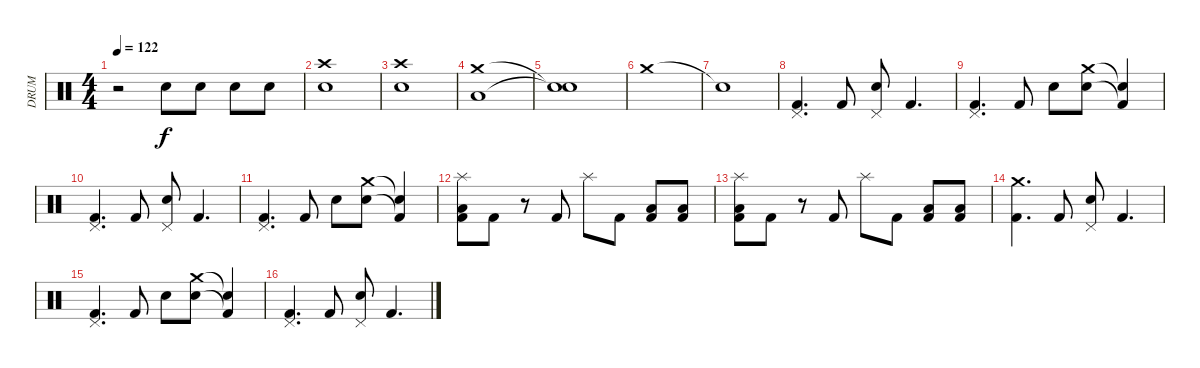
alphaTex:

\track ("DRUM" "DRUM") {instrument percussion}
\staff {score}
\articulation defaults
\ts (4 4)
\tempo 122
\clef neutral
\ks c
r.2{dy f} "Electric Snare (hit)".8 "Electric Snare (hit)".8 "Electric Snare (hit)".8 "Electric Snare (hit)".8 |
("Crash high (hit)" "Snare (hit) 2").1 |
("Crash high (hit)" "Electric Snare (hit)").1 |
("Crash medium (hit)" "Low Floor Tom (hit)").1 |
("Snare (hit)"{t} "Snare (hit)"{t}).1 |
"Crash medium (hit)".1 |
"Snare (hit)"{t}.1 |
("Kick (hit) 2" "Pedal Hi-Hat (hit)").4{d} "Kick (hit) 2".8 ("Snare (hit) 2" "Pedal Hi-Hat (hit)").8 "Kick (hit) 2".4{d} |
("Kick (hit) 2" "Pedal Hi-Hat (hit)").4{d} "Kick (hit) 2".8 "Electric Snare (hit)".8 ("Electric Snare (hit)" "Crash medium (hit)").8 ("Kick (hit) 2"{t} "Snare (hit)"{t}).4 |
("Kick (hit) 2" "Pedal Hi-Hat (hit)").4{d} "Kick (hit) 2".8 ("Snare (hit) 2" "Pedal Hi-Hat (hit)").8 "Kick (hit) 2".4{d} |
("Kick (hit) 2" "Pedal Hi-Hat (hit)").4{d} "Kick (hit) 2".8 "Electric Snare (hit)".8 ("Electric Snare (hit)" "Crash medium (hit)").8 ("Kick (hit) 2"{t} "Snare (hit)"{t}).4 |
("Kick (hit) 2" "Low Floor Tom (hit)" "Splash (hit)").8 "Kick (hit) 2".8 r.8 "Kick (hit) 2".8 "Splash (hit)".8 "Kick (hit) 2".8 ("Kick (hit) 2" "Low Floor Tom (hit)").8 ("Kick (hit) 2" "Low Floor Tom (hit)").8 |
("Kick (hit) 2" "Low Floor Tom (hit)" "Splash (hit)").8 "Kick (hit) 2".8 r.8 "Kick (hit) 2".8 "Splash (hit)".8 "Kick (hit) 2".8 ("Kick (hit) 2" "Low Floor Tom (hit)").8 ("Kick (hit) 2" "Low Floor Tom (hit)").8 |
("Kick (hit) 2" "Crash medium (hit)").4{d} "Kick (hit) 2".8 ("Snare (hit) 2" "Pedal Hi-Hat (hit)").8 "Kick (hit) 2".4{d} |
("Kick (hit) 2" "Pedal Hi-Hat (hit)").4{d} "Kick (hit) 2".8 "Electric Snare (hit)".8 ("Electric Snare (hit)" "Crash medium (hit)").8 ("Kick (hit) 2"{t} "Snare (hit)"{t}).4 |
("Kick (hit) 2" "Pedal Hi-Hat (hit)").4{d} "Kick (hit) 2".8 ("Snare (hit) 2" "Pedal Hi-Hat (hit)").8 "Kick (hit) 2".4{d}
